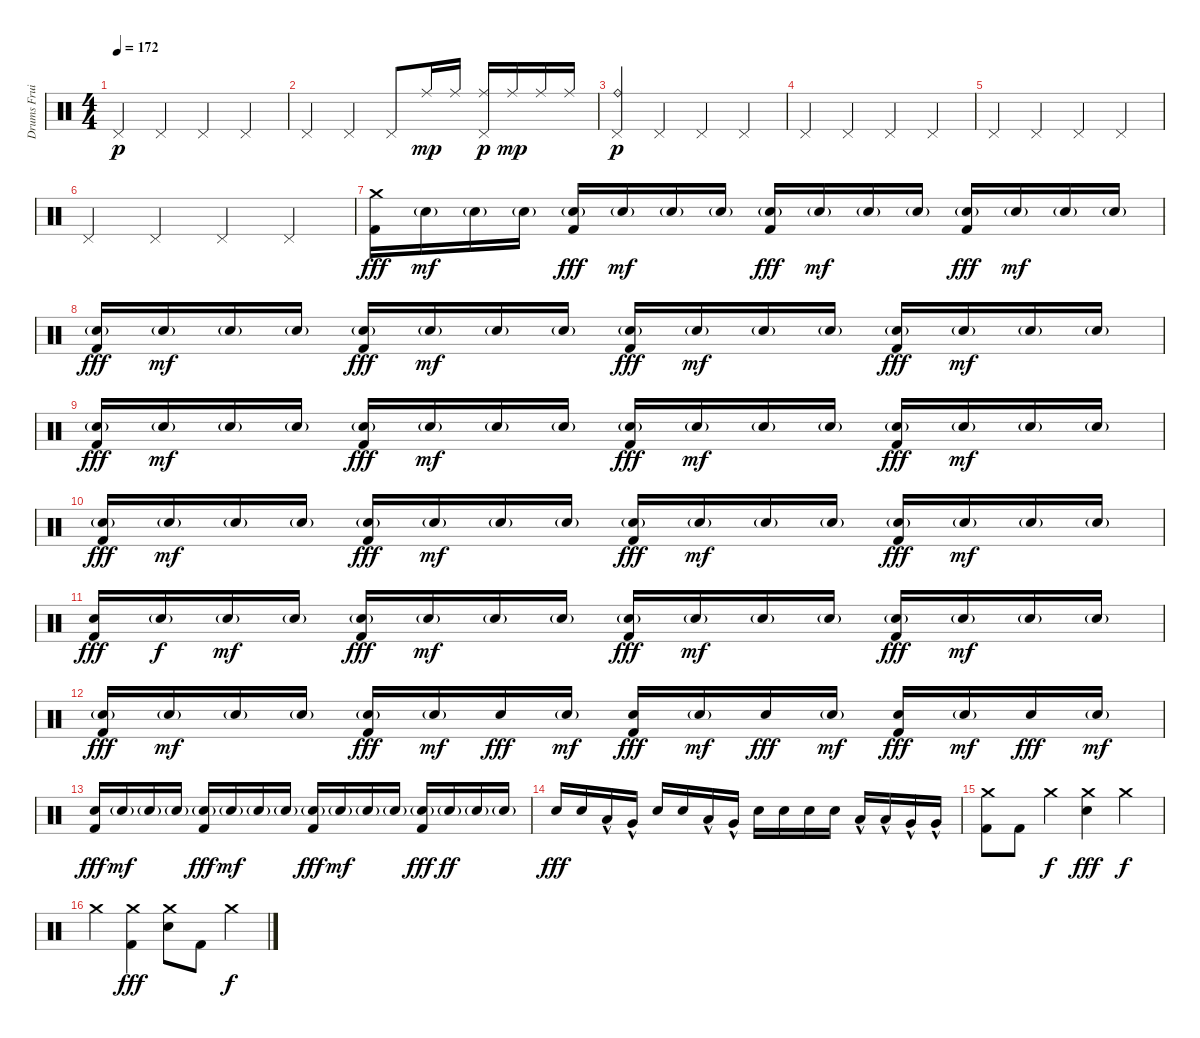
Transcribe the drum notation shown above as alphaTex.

\track ("Drums Fruity Lexia" "Drums Frui") {instrument percussion}
\staff {score}
\articulation defaults
\ts (4 4)
\tempo 172
\clef neutral
\ks c "Pedal Hi-Hat (hit)".4{dy p} "Pedal Hi-Hat (hit)".4 "Pedal Hi-Hat (hit)".4 "Pedal Hi-Hat (hit)".4
|
"Pedal Hi-Hat (hit)".4 "Pedal Hi-Hat (hit)".4 "Pedal Hi-Hat (hit)".8 "Ride (middle)".16{dy mp} "Ride (middle)".16 ("Ride (middle)" "Pedal Hi-Hat (hit)").16{dy p} "Ride (middle)".16{dy mp} "Ride (middle)".16 "Ride (middle)".16 |
("Ride (bell)" "Pedal Hi-Hat (hit)").4{dy p} "Pedal Hi-Hat (hit)".4 "Pedal Hi-Hat (hit)".4 "Pedal Hi-Hat (hit)".4 |
"Pedal Hi-Hat (hit)".4 "Pedal Hi-Hat (hit)".4 "Pedal Hi-Hat (hit)".4 "Pedal Hi-Hat (hit)".4 |
"Pedal Hi-Hat (hit)".4 "Pedal Hi-Hat (hit)".4 "Pedal Hi-Hat (hit)".4 "Pedal Hi-Hat (hit)".4 |
"Pedal Hi-Hat (hit)".4 "Pedal Hi-Hat (hit)".4 "Pedal Hi-Hat (hit)".4 "Pedal Hi-Hat (hit)".4 |
("Crash medium (hit)" "Kick (hit) 2").16{dy fff} "Electric Snare (hit)"{g}.16{dy mf} "Electric Snare (hit)"{g}.16 "Electric Snare (hit)"{g}.16 ("Electric Snare (hit)"{g} "Kick (hit) 2").16{dy fff} "Electric Snare (hit)"{g}.16{dy mf} "Electric Snare (hit)"{g}.16 "Electric Snare (hit)"{g}.16 ("Electric Snare (hit)"{g} "Kick (hit) 2").16{dy fff} "Electric Snare (hit)"{g}.16{dy mf} "Electric Snare (hit)"{g}.16 "Electric Snare (hit)"{g}.16 ("Electric Snare (hit)"{g} "Kick (hit) 2").16{dy fff} "Electric Snare (hit)"{g}.16{dy mf} "Electric Snare (hit)"{g}.16 "Electric Snare (hit)"{g}.16 |
("Electric Snare (hit)"{g} "Kick (hit) 2").16{dy fff} "Electric Snare (hit)"{g}.16{dy mf} "Electric Snare (hit)"{g}.16 "Electric Snare (hit)"{g}.16 ("Electric Snare (hit)"{g} "Kick (hit) 2").16{dy fff} "Electric Snare (hit)"{g}.16{dy mf} "Electric Snare (hit)"{g}.16 "Electric Snare (hit)"{g}.16 ("Electric Snare (hit)"{g} "Kick (hit) 2").16{dy fff} "Electric Snare (hit)"{g}.16{dy mf} "Electric Snare (hit)"{g}.16 "Electric Snare (hit)"{g}.16 ("Electric Snare (hit)"{g} "Kick (hit) 2").16{dy fff} "Electric Snare (hit)"{g}.16{dy mf} "Electric Snare (hit)"{g}.16 "Electric Snare (hit)"{g}.16 |
("Electric Snare (hit)"{g} "Kick (hit) 2").16{dy fff} "Electric Snare (hit)"{g}.16{dy mf} "Electric Snare (hit)"{g}.16 "Electric Snare (hit)"{g}.16 ("Electric Snare (hit)"{g} "Kick (hit) 2").16{dy fff} "Electric Snare (hit)"{g}.16{dy mf} "Electric Snare (hit)"{g}.16 "Electric Snare (hit)"{g}.16 ("Electric Snare (hit)"{g} "Kick (hit) 2").16{dy fff} "Electric Snare (hit)"{g}.16{dy mf} "Electric Snare (hit)"{g}.16 "Electric Snare (hit)"{g}.16 ("Electric Snare (hit)"{g} "Kick (hit) 2").16{dy fff} "Electric Snare (hit)"{g}.16{dy mf} "Electric Snare (hit)"{g}.16 "Electric Snare (hit)"{g}.16 |
("Electric Snare (hit)"{g} "Kick (hit) 2").16{dy fff} "Electric Snare (hit)"{g}.16{dy mf} "Electric Snare (hit)"{g}.16 "Electric Snare (hit)"{g}.16 ("Electric Snare (hit)"{g} "Kick (hit) 2").16{dy fff} "Electric Snare (hit)"{g}.16{dy mf} "Electric Snare (hit)"{g}.16 "Electric Snare (hit)"{g}.16 ("Electric Snare (hit)"{g} "Kick (hit) 2").16{dy fff} "Electric Snare (hit)"{g}.16{dy mf} "Electric Snare (hit)"{g}.16 "Electric Snare (hit)"{g}.16 ("Electric Snare (hit)"{g} "Kick (hit) 2").16{dy fff} "Electric Snare (hit)"{g}.16{dy mf} "Electric Snare (hit)"{g}.16 "Electric Snare (hit)"{g}.16 |
("Electric Snare (hit)" "Kick (hit) 2").16{dy fff} "Electric Snare (hit)"{g}.16{dy f} "Electric Snare (hit)"{g}.16{dy mf} "Electric Snare (hit)"{g}.16 ("Electric Snare (hit)"{g} "Kick (hit) 2").16{dy fff} "Electric Snare (hit)"{g}.16{dy mf} "Electric Snare (hit)"{g}.16 "Electric Snare (hit)"{g}.16 ("Electric Snare (hit)"{g} "Kick (hit) 2").16{dy fff} "Electric Snare (hit)"{g}.16{dy mf} "Electric Snare (hit)"{g}.16 "Electric Snare (hit)"{g}.16 ("Electric Snare (hit)"{g} "Kick (hit) 2").16{dy fff} "Electric Snare (hit)"{g}.16{dy mf} "Electric Snare (hit)"{g}.16 "Electric Snare (hit)"{g}.16 |
("Electric Snare (hit)"{g} "Kick (hit) 2").16{dy fff} "Electric Snare (hit)"{g}.16{dy mf} "Electric Snare (hit)"{g}.16 "Electric Snare (hit)"{g}.16 ("Electric Snare (hit)"{g} "Kick (hit) 2").16{dy fff} "Electric Snare (hit)"{g}.16{dy mf} "Electric Snare (hit)".16{dy fff} "Electric Snare (hit)"{g}.16{dy mf} ("Electric Snare (hit)" "Kick (hit) 2").16{dy fff} "Electric Snare (hit)"{g}.16{dy mf} "Electric Snare (hit)".16{dy fff} "Electric Snare (hit)"{g}.16{dy mf} ("Electric Snare (hit)" "Kick (hit) 2").16{dy fff} "Electric Snare (hit)"{g}.16{dy mf} "Electric Snare (hit)".16{dy fff} "Electric Snare (hit)"{g}.16{dy mf} |
("Electric Snare (hit)" "Kick (hit) 2").16{dy fff} "Electric Snare (hit)"{g}.16{dy mf} "Electric Snare (hit)"{g}.16 "Electric Snare (hit)"{g}.16 ("Electric Snare (hit)"{g} "Kick (hit) 2").16{dy fff} "Electric Snare (hit)"{g}.16{dy mf} "Electric Snare (hit)"{g}.16 "Electric Snare (hit)"{g}.16 ("Electric Snare (hit)"{g} "Kick (hit) 2").16{dy fff} "Electric Snare (hit)"{g}.16{dy mf} "Electric Snare (hit)"{g}.16 "Electric Snare (hit)"{g}.16 ("Electric Snare (hit)"{g} "Kick (hit) 2").16{dy fff} "Electric Snare (hit)"{g}.16{dy ff} "Electric Snare (hit)"{g}.16 "Electric Snare (hit)"{g}.16 |
"Electric Snare (hit)".16{dy fff} "Electric Snare (hit)".16 "Low Tom (hit)"{hac}.16 "Very Low Tom (hit)"{hac}.16 "Electric Snare (hit)".16 "Electric Snare (hit)".16 "Low Tom (hit)"{hac}.16 "Very Low Tom (hit)"{hac}.16 "Electric Snare (hit)".16 "Electric Snare (hit)".16 "Electric Snare (hit)".16 "Electric Snare (hit)".16 "Low Tom (hit)"{hac}.16 "Low Tom (hit)"{hac}.16 "Very Low Tom (hit)"{hac}.16 "Very Low Tom (hit)"{hac}.16 |
("Crash medium (hit)" "Kick (hit) 2").8 "Kick (hit) 2".8 "Crash medium (hit)".4{dy f} ("Crash medium (hit)" "Electric Snare (hit)").4{dy fff} "Crash medium (hit)".4{dy f} |
"Crash medium (hit)".4 ("Crash medium (hit)" "Kick (hit) 2").4{dy fff} ("Crash medium (hit)" "Electric Snare (hit)").8 "Kick (hit) 2".8 "Crash medium (hit)".4{dy f}
